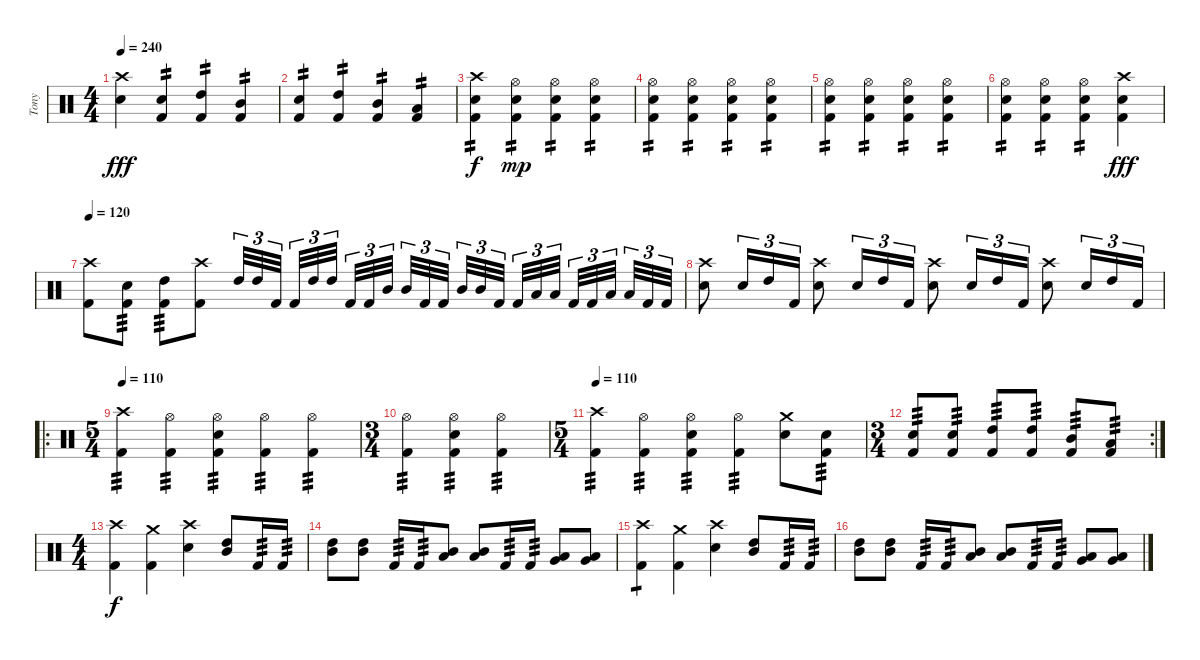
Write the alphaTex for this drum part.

\track ("Tony" "Tony") {instrument percussion}
\staff {score}
\articulation defaults
\ts (4 4)
\tempo 240
\clef neutral
\ks c
("Crash high (hit)" "Snare (hit) 2").4{dy fff} ("Snare (hit) 2" "Kick (hit) 2").4{tp 2} ("High Tom (hit)" "Kick (hit) 2").4{tp 2} ("Mid Tom (hit)" "Kick (hit) 2").4{tp 2} |
("Snare (hit) 2" "Kick (hit) 2").4{tp 2} ("High Tom (hit)" "Kick (hit) 2").4{tp 2} ("Mid Tom (hit)" "Kick (hit) 2").4{tp 2} ("Low Tom (hit)" "Kick (hit) 2").4{tp 2} |
("Crash high (hit)" "Snare (hit) 2" "Kick (hit) 2").4{tp 2 dy f} ("Hi-Hat (open)" "Snare (hit) 2" "Kick (hit) 2").4{tp 2 dy mp} ("Hi-Hat (open)" "Snare (hit) 2" "Kick (hit) 2").4{tp 2} ("Hi-Hat (open)" "Snare (hit) 2" "Kick (hit) 2").4{tp 2} |
("Hi-Hat (open)" "Snare (hit) 2" "Kick (hit) 2").4{tp 2} ("Hi-Hat (open)" "Snare (hit) 2" "Kick (hit) 2").4{tp 2} ("Hi-Hat (open)" "Snare (hit) 2" "Kick (hit) 2").4{tp 2} ("Hi-Hat (open)" "Snare (hit) 2" "Kick (hit) 2").4{tp 2} |
("Hi-Hat (open)" "Snare (hit) 2" "Kick (hit) 2").4{tp 2} ("Hi-Hat (open)" "Snare (hit) 2" "Kick (hit) 2").4{tp 2} ("Hi-Hat (open)" "Snare (hit) 2" "Kick (hit) 2").4{tp 2} ("Hi-Hat (open)" "Snare (hit) 2" "Kick (hit) 2").4{tp 2} |
("Hi-Hat (open)" "Snare (hit) 2" "Kick (hit) 2").4{tp 2} ("Hi-Hat (open)" "Snare (hit) 2" "Kick (hit) 2").4{tp 2} ("Hi-Hat (open)" "Snare (hit) 2" "Kick (hit) 2").4{tp 2} ("Crash high (hit)" "Snare (hit) 2" "Kick (hit) 2").4{dy fff} |
\tempo 120
("Crash high (hit)" "Kick (hit) 2").8 ("Snare (hit) 2" "Kick (hit) 2").8{tp 3} ("High Tom (hit)" "Kick (hit) 2").8{tp 3} ("Crash high (hit)" "Kick (hit) 2").8 "High Tom (hit)".32{tu (3 2)} "High Tom (hit)".32{tu (3 2)} "Kick (hit) 2".32{tu (3 2) beam splitsecondary} "Kick (hit) 2".32{tu (3 2)} "High Tom (hit)".32{tu (3 2)} "High Tom (hit)".32{tu (3 2) beam splitsecondary} "Kick (hit) 2".32{tu (3 2)} "Kick (hit) 2".32{tu (3 2)} "Mid Tom (hit)".32{tu (3 2) beam splitsecondary} "Mid Tom (hit)".32{tu (3 2)} "Kick (hit) 2".32{tu (3 2)} "Kick (hit) 2".32{tu (3 2)} "Mid Tom (hit)".32{tu (3 2)} "Mid Tom (hit)".32{tu (3 2)} "Kick (hit) 2".32{tu (3 2) beam splitsecondary} "Kick (hit) 2".32{tu (3 2)} "Low Tom (hit)".32{tu (3 2)} "Low Tom (hit)".32{tu (3 2) beam splitsecondary} "Kick (hit) 2".32{tu (3 2)} "Kick (hit) 2".32{tu (3 2)} "Low Tom (hit)".32{tu (3 2) beam splitsecondary} "Low Tom (hit)".32{tu (3 2)} "Kick (hit) 2".32{tu (3 2)} "Kick (hit) 2".32{tu (3 2)} |
("Crash high (hit)" "Snare (hit) 2").8 "Snare (hit) 2".16{tu (3 2)} "High Tom (hit)".16{tu (3 2)} "Kick (hit) 2".16{tu (3 2)} ("Crash high (hit)" "Snare (hit) 2").8 "Snare (hit) 2".16{tu (3 2)} "High Tom (hit)".16{tu (3 2)} "Kick (hit) 2".16{tu (3 2)} ("Crash high (hit)" "Snare (hit) 2").8 "Snare (hit) 2".16{tu (3 2)} "High Tom (hit)".16{tu (3 2)} "Kick (hit) 2".16{tu (3 2)} ("Crash high (hit)" "Snare (hit) 2").8 "Snare (hit) 2".16{tu (3 2)} "High Tom (hit)".16{tu (3 2)} "Kick (hit) 2".16{tu (3 2)} |
\ro
\ts (5 4)
\tempo 110
("Crash high (hit)" "Kick (hit) 2").4{tp 3} ("Hi-Hat (open)" "Kick (hit) 2").4{tp 3} ("Hi-Hat (open)" "Snare (hit) 2" "Kick (hit) 2").4{tp 3} ("Hi-Hat (open)" "Kick (hit) 2").4{tp 3} ("Hi-Hat (open)" "Kick (hit) 2").4{tp 3} |
\ts (3 4)
("Hi-Hat (open)" "Kick (hit) 2").4{tp 3} ("Hi-Hat (open)" "Snare (hit) 2" "Kick (hit) 2").4{tp 3} ("Hi-Hat (open)" "Kick (hit) 2").4{tp 3} |
\ts (5 4)
\tempo 110
("Crash high (hit)" "Kick (hit) 2").4{tp 3} ("Hi-Hat (open)" "Kick (hit) 2").4{tp 3} ("Hi-Hat (open)" "Snare (hit) 2" "Kick (hit) 2").4{tp 3} ("Hi-Hat (open)" "Kick (hit) 2").4{tp 3} ("Crash medium (hit)" "Snare (hit) 2").8 ("Snare (hit) 2" "Kick (hit) 2").8{tp 3} |
\rc 2
\ts (3 4)
("Snare (hit) 2" "Kick (hit) 2").8{tp 3} ("Snare (hit) 2" "Kick (hit) 2").8{tp 3} ("High Tom (hit)" "Kick (hit) 2").8{tp 3} ("High Tom (hit)" "Kick (hit) 2").8{tp 3} ("Mid Tom (hit)" "Kick (hit) 2").8{tp 3} ("Low Tom (hit)" "Kick (hit) 2").8{tp 3} |
\ts (4 4)
("Crash high (hit)" "Kick (hit) 2").4{dy f} ("Crash medium (hit)" "Kick (hit) 2").4 ("Crash high (hit)" "Snare (hit) 2").4 ("Mid Tom (hit)" "High Tom (hit)").8 "Kick (hit) 2".16{tp 3} "Kick (hit) 2".16{tp 3} |
("Mid Tom (hit)" "High Tom (hit)").8 ("Mid Tom (hit)" "High Tom (hit)").8 "Kick (hit) 2".16{tp 3} "Kick (hit) 2".16{tp 3} ("Low Tom (hit)" "Mid Tom (hit)").8 ("Low Tom (hit)" "Mid Tom (hit)").8 "Kick (hit) 2".16{tp 3} "Kick (hit) 2".16{tp 3} ("Very Low Tom (hit)" "Low Tom (hit)").8 ("Very Low Tom (hit)" "Low Tom (hit)").8 |
("Crash high (hit)" "Kick (hit) 2").4{tp 1} ("Crash medium (hit)" "Kick (hit) 2").4 ("Crash high (hit)" "Snare (hit) 2").4 ("Mid Tom (hit)" "High Tom (hit)").8 "Kick (hit) 2".16{tp 3} "Kick (hit) 2".16{tp 3} |
("Mid Tom (hit)" "High Tom (hit)").8 ("Mid Tom (hit)" "High Tom (hit)").8 "Kick (hit) 2".16{tp 3} "Kick (hit) 2".16{tp 3} ("Low Tom (hit)" "Mid Tom (hit)").8 ("Low Tom (hit)" "Mid Tom (hit)").8 "Kick (hit) 2".16{tp 3} "Kick (hit) 2".16{tp 3} ("Very Low Tom (hit)" "Low Tom (hit)").8 ("Very Low Tom (hit)" "Low Tom (hit)").8
